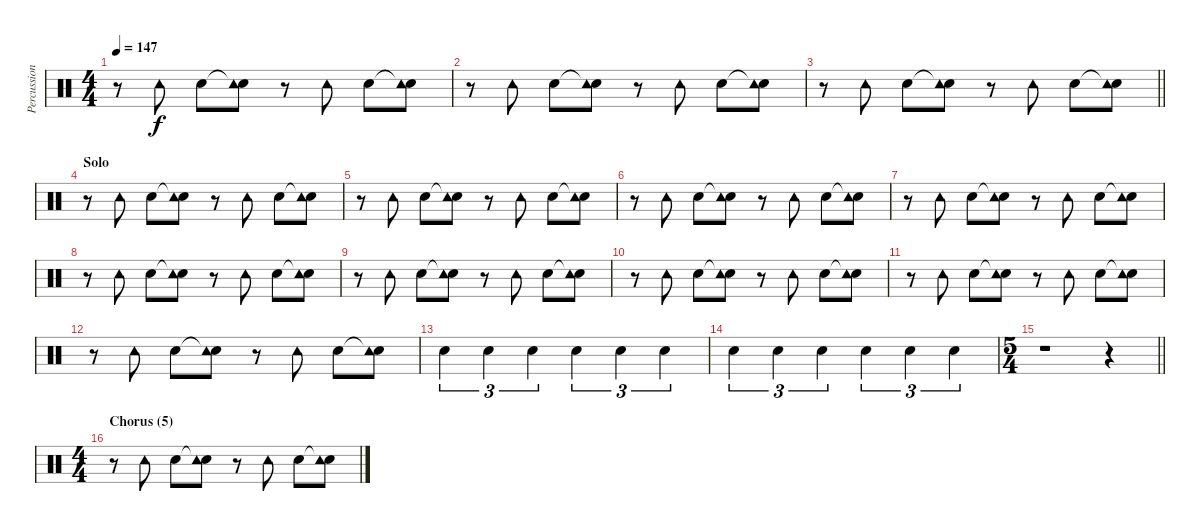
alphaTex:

\track ("Percussion" "Percussion") {instrument percussion}
\staff {score}
\articulation defaults
\ts (4 4)
\tempo 147
\clef neutral
\ks aminor
r.8{dy f} "Tambourine (hit)".8 "Hand Clap (hit)".8 ("Snare (hit)"{t} "Tambourine (hit)").8 r.8 "Tambourine (hit)".8 "Hand Clap (hit)".8 ("Snare (hit)"{t} "Tambourine (hit)").8 |
r.8 "Tambourine (hit)".8 "Hand Clap (hit)".8 ("Snare (hit)"{t} "Tambourine (hit)").8 r.8 "Tambourine (hit)".8 "Hand Clap (hit)".8 ("Snare (hit)"{t} "Tambourine (hit)").8 |
\barLineRight lightlight
r.8 "Tambourine (hit)".8 "Hand Clap (hit)".8 ("Snare (hit)"{t} "Tambourine (hit)").8 r.8 "Tambourine (hit)".8 "Hand Clap (hit)".8 ("Snare (hit)"{t} "Tambourine (hit)").8 |
\section ("" "Solo")
r.8 "Tambourine (hit)".8 "Hand Clap (hit)".8 ("Snare (hit)"{t} "Tambourine (hit)").8 r.8 "Tambourine (hit)".8 "Hand Clap (hit)".8 ("Snare (hit)"{t} "Tambourine (hit)").8 |
r.8 "Tambourine (hit)".8 "Hand Clap (hit)".8 ("Snare (hit)"{t} "Tambourine (hit)").8 r.8 "Tambourine (hit)".8 "Hand Clap (hit)".8 ("Snare (hit)"{t} "Tambourine (hit)").8 |
r.8 "Tambourine (hit)".8 "Hand Clap (hit)".8 ("Snare (hit)"{t} "Tambourine (hit)").8 r.8 "Tambourine (hit)".8 "Hand Clap (hit)".8 ("Snare (hit)"{t} "Tambourine (hit)").8 |
r.8 "Tambourine (hit)".8 "Hand Clap (hit)".8 ("Snare (hit)"{t} "Tambourine (hit)").8 r.8 "Tambourine (hit)".8 "Hand Clap (hit)".8 ("Snare (hit)"{t} "Tambourine (hit)").8 |
r.8 "Tambourine (hit)".8 "Hand Clap (hit)".8 ("Snare (hit)"{t} "Tambourine (hit)").8 r.8 "Tambourine (hit)".8 "Hand Clap (hit)".8 ("Snare (hit)"{t} "Tambourine (hit)").8 |
r.8 "Tambourine (hit)".8 "Hand Clap (hit)".8 ("Snare (hit)"{t} "Tambourine (hit)").8 r.8 "Tambourine (hit)".8 "Hand Clap (hit)".8 ("Snare (hit)"{t} "Tambourine (hit)").8 |
r.8 "Tambourine (hit)".8 "Hand Clap (hit)".8 ("Snare (hit)"{t} "Tambourine (hit)").8 r.8 "Tambourine (hit)".8 "Hand Clap (hit)".8 ("Snare (hit)"{t} "Tambourine (hit)").8 |
r.8 "Tambourine (hit)".8 "Hand Clap (hit)".8 ("Snare (hit)"{t} "Tambourine (hit)").8 r.8 "Tambourine (hit)".8 "Hand Clap (hit)".8 ("Snare (hit)"{t} "Tambourine (hit)").8 |
r.8 "Tambourine (hit)".8 "Hand Clap (hit)".8 ("Snare (hit)"{t} "Tambourine (hit)").8 r.8 "Tambourine (hit)".8 "Hand Clap (hit)".8 ("Snare (hit)"{t} "Tambourine (hit)").8 |
"Hand Clap (hit)".4{tu (3 2)} "Hand Clap (hit)".4{tu (3 2)} "Hand Clap (hit)".4{tu (3 2)} "Hand Clap (hit)".4{tu (3 2)} "Hand Clap (hit)".4{tu (3 2)} "Hand Clap (hit)".4{tu (3 2)} |
"Hand Clap (hit)".4{tu (3 2)} "Hand Clap (hit)".4{tu (3 2)} "Hand Clap (hit)".4{tu (3 2)} "Hand Clap (hit)".4{tu (3 2)} "Hand Clap (hit)".4{tu (3 2)} "Hand Clap (hit)".4{tu (3 2)} |
\ts (5 4)
\barLineRight lightlight
r.1 r.4 |
\ts (4 4)
\section ("" "Chorus (5)")
r.8 "Tambourine (hit)".8 "Hand Clap (hit)".8 ("Snare (hit)"{t} "Tambourine (hit)").8 r.8 "Tambourine (hit)".8 "Hand Clap (hit)".8 ("Snare (hit)"{t} "Tambourine (hit)").8
